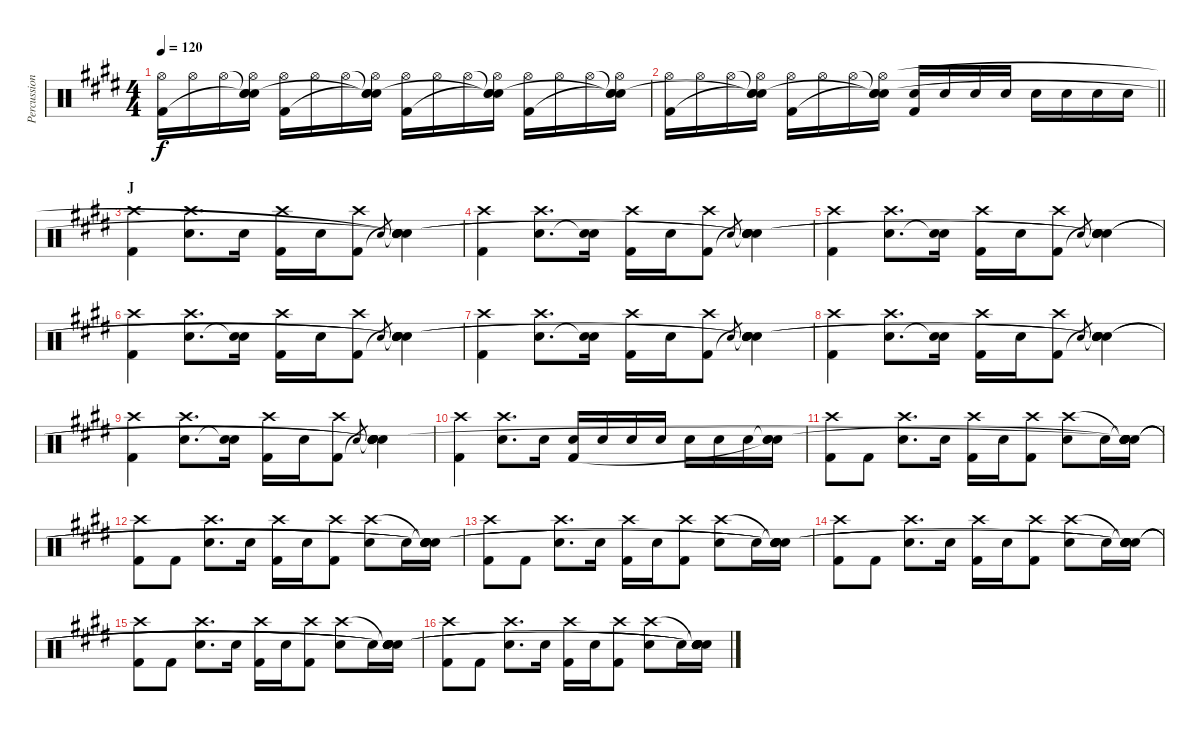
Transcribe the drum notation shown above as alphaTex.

\track ("Percussion" "Percussion") {instrument percussion}
\staff {score}
\articulation defaults
\ts (4 4)
\tempo 120
\clef neutral
\ks e
("Hi-Hat (open)" "Kick (hit) 2").16{dy f} "Hi-Hat (open)".16 "Hi-Hat (open)".16 ("Snare (hit)"{t} "Snare (hit)"{t} "Snare (hit)"{t} "Hi-Hat (open)").16 ("Hi-Hat (open)" "Kick (hit) 2").16 "Hi-Hat (open)".16 "Hi-Hat (open)".16 ("Snare (hit)"{t} "Snare (hit)"{t} "Snare (hit)"{t} "Hi-Hat (open)").16 ("Hi-Hat (open)" "Kick (hit) 2").16 "Hi-Hat (open)".16 "Hi-Hat (open)".16 ("Snare (hit)"{t} "Snare (hit)"{t} "Snare (hit)"{t} "Hi-Hat (open)").16 ("Hi-Hat (open)" "Kick (hit) 2").16 "Hi-Hat (open)".16 "Hi-Hat (open)".16 ("Snare (hit)"{t} "Snare (hit)"{t} "Snare (hit)"{t} "Hi-Hat (open)").16 |
\barLineRight lightlight
("Hi-Hat (open)" "Kick (hit) 2").16 "Hi-Hat (open)".16 "Hi-Hat (open)".16 ("Snare (hit)"{t} "Snare (hit)"{t} "Snare (hit)"{t} "Hi-Hat (open)").16 ("Hi-Hat (open)" "Kick (hit) 2").16 "Hi-Hat (open)".16 "Hi-Hat (open)".16 ("Snare (hit)"{t} "Snare (hit)"{t} "Snare (hit)"{t} "Hi-Hat (open)").16 ("Electric Snare (hit)" "Kick (hit) 2").16 "Electric Snare (hit)".16 "Electric Snare (hit)".16 "Electric Snare (hit)".16 "Electric Snare (hit)".16 "Electric Snare (hit)".16 "Electric Snare (hit)".16 "Electric Snare (hit)".16 |
\section ("" "J")
("Crash high (hit)" "Kick (hit) 2").4 ("Crash high (hit)" "Electric Snare (hit)").8{d} "Electric Snare (hit)".16 ("Crash high (hit)" "Kick (hit) 2").16 "Electric Snare (hit)".16 ("Crash high (hit)" "Kick (hit) 2").8 "Electric Snare (hit)".8{gr} ("Snare (hit)"{t} "Snare (hit)"{t} "Snare (hit)"{t} "Snare (hit)"{t} "Electric Snare (hit)").4 |
("Crash high (hit)" "Kick (hit) 2").4 ("Crash high (hit)" "Electric Snare (hit)").8{d} ("Electric Snare (hit)" "Snare (hit)"{t}).16 ("Crash high (hit)" "Kick (hit) 2").16 "Electric Snare (hit)".16 ("Crash high (hit)" "Kick (hit) 2").8 "Electric Snare (hit)".8{gr} ("Snare (hit)"{t} "Snare (hit)"{t} "Snare (hit)"{t} "Snare (hit)"{t} "Electric Snare (hit)").4 |
("Crash high (hit)" "Kick (hit) 2").4 ("Crash high (hit)" "Electric Snare (hit)").8{d} ("Electric Snare (hit)" "Snare (hit)"{t}).16 ("Crash high (hit)" "Kick (hit) 2").16 "Electric Snare (hit)".16 ("Crash high (hit)" "Kick (hit) 2").8 "Electric Snare (hit)".8{gr} ("Snare (hit)"{t} "Snare (hit)"{t} "Snare (hit)"{t} "Snare (hit)"{t} "Electric Snare (hit)").4 |
("Crash high (hit)" "Kick (hit) 2").4 ("Crash high (hit)" "Electric Snare (hit)").8{d} ("Electric Snare (hit)" "Snare (hit)"{t}).16 ("Crash high (hit)" "Kick (hit) 2").16 "Electric Snare (hit)".16 ("Crash high (hit)" "Kick (hit) 2").8 "Electric Snare (hit)".8{gr} ("Snare (hit)"{t} "Snare (hit)"{t} "Snare (hit)"{t} "Snare (hit)"{t} "Electric Snare (hit)").4 |
("Crash high (hit)" "Kick (hit) 2").4 ("Crash high (hit)" "Electric Snare (hit)").8{d} ("Electric Snare (hit)" "Snare (hit)"{t}).16 ("Crash high (hit)" "Kick (hit) 2").16 "Electric Snare (hit)".16 ("Crash high (hit)" "Kick (hit) 2").8 "Electric Snare (hit)".8{gr} ("Snare (hit)"{t} "Snare (hit)"{t} "Snare (hit)"{t} "Snare (hit)"{t} "Electric Snare (hit)").4 |
("Crash high (hit)" "Kick (hit) 2").4 ("Crash high (hit)" "Electric Snare (hit)").8{d} ("Electric Snare (hit)" "Snare (hit)"{t}).16 ("Crash high (hit)" "Kick (hit) 2").16 "Electric Snare (hit)".16 ("Crash high (hit)" "Kick (hit) 2").8 "Electric Snare (hit)".8{gr} ("Snare (hit)"{t} "Snare (hit)"{t} "Snare (hit)"{t} "Snare (hit)"{t} "Electric Snare (hit)").4 |
("Crash high (hit)" "Kick (hit) 2").4 ("Crash high (hit)" "Electric Snare (hit)").8{d} ("Electric Snare (hit)" "Snare (hit)"{t}).16 ("Crash high (hit)" "Kick (hit) 2").16 "Electric Snare (hit)".16 ("Crash high (hit)" "Kick (hit) 2").8 "Electric Snare (hit)".8{gr} ("Snare (hit)"{t} "Snare (hit)"{t} "Snare (hit)"{t} "Snare (hit)"{t} "Electric Snare (hit)").4 |
("Crash high (hit)" "Kick (hit) 2").4 ("Crash high (hit)" "Electric Snare (hit)").8{d} "Electric Snare (hit)".16 ("Electric Snare (hit)" "Kick (hit) 2").16 "Electric Snare (hit)".16 "Electric Snare (hit)".16 "Electric Snare (hit)".16 "Electric Snare (hit)".16 "Electric Snare (hit)".16 "Electric Snare (hit)".16 ("Snare (hit)"{t} "Snare (hit)"{t} "Electric Snare (hit)").16 |
("Crash high (hit)" "Kick (hit) 2").8 "Kick (hit) 2".8 ("Crash high (hit)" "Electric Snare (hit)").8{d} "Electric Snare (hit)".16 ("Crash high (hit)" "Kick (hit) 2").16 "Electric Snare (hit)".16 ("Crash high (hit)" "Kick (hit) 2").8 ("Electric Snare (hit)" "Crash high (hit)").8 "Electric Snare (hit)".16 ("Snare (hit)"{t} "Snare (hit)"{t} "Snare (hit)"{t} "Snare (hit)"{t} "Electric Snare (hit)" "Snare (hit)").16 |
("Crash high (hit)" "Kick (hit) 2").8 "Kick (hit) 2".8 ("Crash high (hit)" "Electric Snare (hit)").8{d} "Electric Snare (hit)".16 ("Crash high (hit)" "Kick (hit) 2").16 "Electric Snare (hit)".16 ("Crash high (hit)" "Kick (hit) 2").8 ("Electric Snare (hit)" "Crash high (hit)").8 "Electric Snare (hit)".16 ("Snare (hit)"{t} "Snare (hit)"{t} "Snare (hit)"{t} "Snare (hit)"{t} "Electric Snare (hit)" "Snare (hit)"{t}).16 |
("Crash high (hit)" "Kick (hit) 2").8 "Kick (hit) 2".8 ("Crash high (hit)" "Electric Snare (hit)").8{d} "Electric Snare (hit)".16 ("Crash high (hit)" "Kick (hit) 2").16 "Electric Snare (hit)".16 ("Crash high (hit)" "Kick (hit) 2").8 ("Electric Snare (hit)" "Crash high (hit)").8 "Electric Snare (hit)".16 ("Snare (hit)"{t} "Snare (hit)"{t} "Snare (hit)"{t} "Snare (hit)"{t} "Electric Snare (hit)" "Snare (hit)"{t}).16 |
("Crash high (hit)" "Kick (hit) 2").8 "Kick (hit) 2".8 ("Crash high (hit)" "Electric Snare (hit)").8{d} "Electric Snare (hit)".16 ("Crash high (hit)" "Kick (hit) 2").16 "Electric Snare (hit)".16 ("Crash high (hit)" "Kick (hit) 2").8 ("Electric Snare (hit)" "Crash high (hit)").8 "Electric Snare (hit)".16 ("Snare (hit)"{t} "Snare (hit)"{t} "Snare (hit)"{t} "Snare (hit)"{t} "Electric Snare (hit)" "Snare (hit)"{t}).16 |
("Crash high (hit)" "Kick (hit) 2").8 "Kick (hit) 2".8 ("Crash high (hit)" "Electric Snare (hit)").8{d} "Electric Snare (hit)".16 ("Crash high (hit)" "Kick (hit) 2").16 "Electric Snare (hit)".16 ("Crash high (hit)" "Kick (hit) 2").8 ("Electric Snare (hit)" "Crash high (hit)").8 "Electric Snare (hit)".16 ("Snare (hit)"{t} "Snare (hit)"{t} "Snare (hit)"{t} "Snare (hit)"{t} "Electric Snare (hit)" "Snare (hit)"{t}).16 |
("Crash high (hit)" "Kick (hit) 2").8 "Kick (hit) 2".8 ("Crash high (hit)" "Electric Snare (hit)").8{d} "Electric Snare (hit)".16 ("Crash high (hit)" "Kick (hit) 2").16 "Electric Snare (hit)".16 ("Crash high (hit)" "Kick (hit) 2").8 ("Electric Snare (hit)" "Crash high (hit)").8 "Electric Snare (hit)".16 ("Snare (hit)"{t} "Snare (hit)"{t} "Snare (hit)"{t} "Snare (hit)"{t} "Electric Snare (hit)" "Snare (hit)"{t}).16
